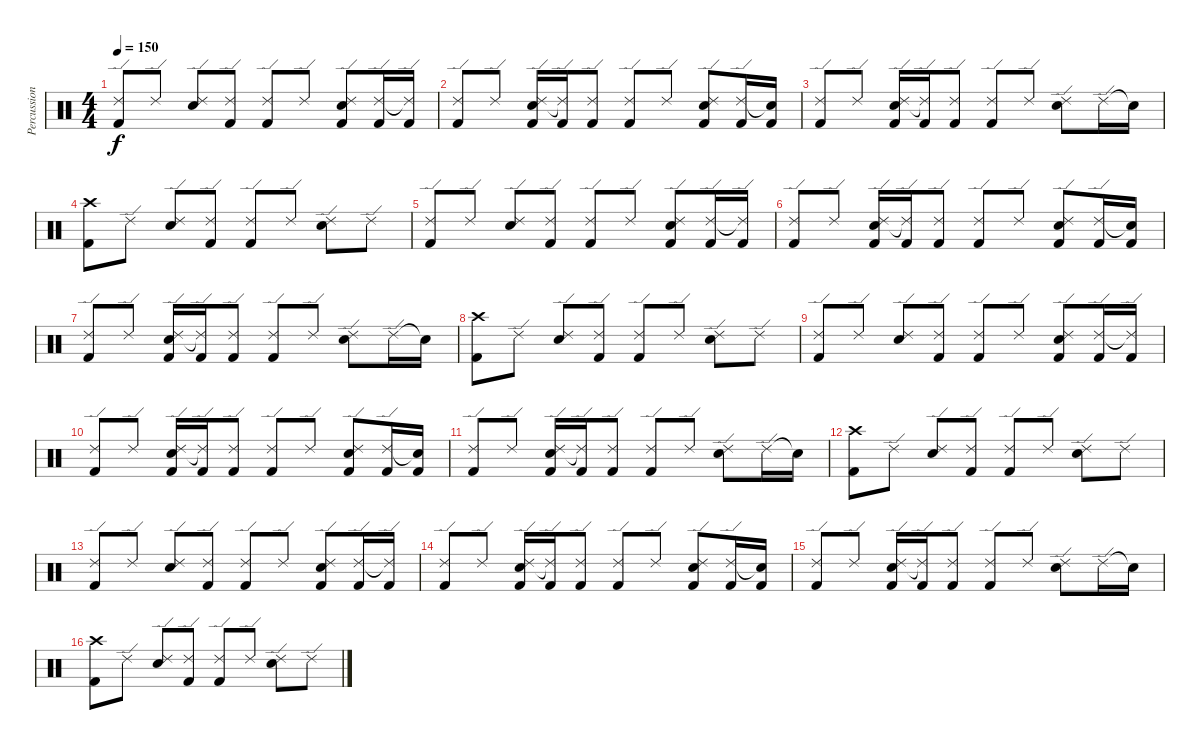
\track ("Percussion" "Percussion") {instrument percussion}
\staff {score}
\articulation defaults
\ts (4 4)
\tempo 150
\clef neutral
\ks c
("Ride (edge) 2" "Kick (hit) 2").8{dy f} "Ride (edge) 2".8 ("Ride (edge) 2" "Electric Snare (hit)").8 ("Ride (edge) 2" "Kick (hit) 2").8 ("Ride (edge) 2" "Kick (hit) 2").8 "Ride (edge) 2".8 ("Electric Snare (hit)" "Ride (edge) 2" "Kick (hit) 2").8 ("Ride (edge) 2" "Kick (hit) 2").16 ("Ride (edge) 2"{t} "Kick (hit) 2").16 |
("Ride (edge) 2" "Kick (hit) 2").8 "Ride (edge) 2".8 ("Electric Snare (hit)" "Ride (edge) 2" "Kick (hit) 2").16 ("Ride (edge) 2"{t} "Kick (hit) 2").16 ("Ride (edge) 2" "Kick (hit) 2").8 ("Ride (edge) 2" "Kick (hit) 2").8 "Ride (edge) 2".8 ("Electric Snare (hit)" "Ride (edge) 2" "Kick (hit) 2").8 ("Ride (edge) 2" "Kick (hit) 2").16 ("Snare (hit)"{t} "Kick (hit) 2").16 |
("Ride (edge) 2" "Kick (hit) 2").8 "Ride (edge) 2".8 ("Electric Snare (hit)" "Ride (edge) 2" "Kick (hit) 2").16 ("Ride (edge) 2"{t} "Kick (hit) 2").16 ("Ride (edge) 2" "Kick (hit) 2").8 ("Ride (edge) 2" "Kick (hit) 2").8 "Ride (edge) 2".8 ("Electric Snare (hit)" "Ride (edge) 2").8 "Ride (edge) 2".16 "Snare (hit)"{t}.16 |
("Crash high (hit)" "Kick (hit) 2").8 "Ride (edge) 2".8 ("Ride (edge) 2" "Electric Snare (hit)").8 ("Ride (edge) 2" "Kick (hit) 2").8 ("Ride (edge) 2" "Kick (hit) 2").8 "Ride (edge) 2".8 ("Ride (edge) 2" "Electric Snare (hit)").8 "Ride (edge) 2".8 |
("Ride (edge) 2" "Kick (hit) 2").8 "Ride (edge) 2".8 ("Ride (edge) 2" "Electric Snare (hit)").8 ("Ride (edge) 2" "Kick (hit) 2").8 ("Ride (edge) 2" "Kick (hit) 2").8 "Ride (edge) 2".8 ("Electric Snare (hit)" "Ride (edge) 2" "Kick (hit) 2").8 ("Ride (edge) 2" "Kick (hit) 2").16 ("Ride (edge) 2"{t} "Kick (hit) 2").16 |
("Ride (edge) 2" "Kick (hit) 2").8 "Ride (edge) 2".8 ("Electric Snare (hit)" "Ride (edge) 2" "Kick (hit) 2").16 ("Ride (edge) 2"{t} "Kick (hit) 2").16 ("Ride (edge) 2" "Kick (hit) 2").8 ("Ride (edge) 2" "Kick (hit) 2").8 "Ride (edge) 2".8 ("Electric Snare (hit)" "Ride (edge) 2" "Kick (hit) 2").8 ("Ride (edge) 2" "Kick (hit) 2").16 ("Snare (hit)"{t} "Kick (hit) 2").16 |
("Ride (edge) 2" "Kick (hit) 2").8 "Ride (edge) 2".8 ("Electric Snare (hit)" "Ride (edge) 2" "Kick (hit) 2").16 ("Ride (edge) 2"{t} "Kick (hit) 2").16 ("Ride (edge) 2" "Kick (hit) 2").8 ("Ride (edge) 2" "Kick (hit) 2").8 "Ride (edge) 2".8 ("Electric Snare (hit)" "Ride (edge) 2").8 "Ride (edge) 2".16 "Snare (hit)"{t}.16 |
("Crash high (hit)" "Kick (hit) 2").8 "Ride (edge) 2".8 ("Ride (edge) 2" "Electric Snare (hit)").8 ("Ride (edge) 2" "Kick (hit) 2").8 ("Ride (edge) 2" "Kick (hit) 2").8 "Ride (edge) 2".8 ("Ride (edge) 2" "Electric Snare (hit)").8 "Ride (edge) 2".8 |
("Ride (edge) 2" "Kick (hit) 2").8 "Ride (edge) 2".8 ("Ride (edge) 2" "Electric Snare (hit)").8 ("Ride (edge) 2" "Kick (hit) 2").8 ("Ride (edge) 2" "Kick (hit) 2").8 "Ride (edge) 2".8 ("Electric Snare (hit)" "Ride (edge) 2" "Kick (hit) 2").8 ("Ride (edge) 2" "Kick (hit) 2").16 ("Ride (edge) 2"{t} "Kick (hit) 2").16 |
("Ride (edge) 2" "Kick (hit) 2").8 "Ride (edge) 2".8 ("Electric Snare (hit)" "Ride (edge) 2" "Kick (hit) 2").16 ("Ride (edge) 2"{t} "Kick (hit) 2").16 ("Ride (edge) 2" "Kick (hit) 2").8 ("Ride (edge) 2" "Kick (hit) 2").8 "Ride (edge) 2".8 ("Electric Snare (hit)" "Ride (edge) 2" "Kick (hit) 2").8 ("Ride (edge) 2" "Kick (hit) 2").16 ("Snare (hit)"{t} "Kick (hit) 2").16 |
("Ride (edge) 2" "Kick (hit) 2").8 "Ride (edge) 2".8 ("Electric Snare (hit)" "Ride (edge) 2" "Kick (hit) 2").16 ("Ride (edge) 2"{t} "Kick (hit) 2").16 ("Ride (edge) 2" "Kick (hit) 2").8 ("Ride (edge) 2" "Kick (hit) 2").8 "Ride (edge) 2".8 ("Electric Snare (hit)" "Ride (edge) 2").8 "Ride (edge) 2".16 "Snare (hit)"{t}.16 |
("Crash high (hit)" "Kick (hit) 2").8 "Ride (edge) 2".8 ("Ride (edge) 2" "Electric Snare (hit)").8 ("Ride (edge) 2" "Kick (hit) 2").8 ("Ride (edge) 2" "Kick (hit) 2").8 "Ride (edge) 2".8 ("Ride (edge) 2" "Electric Snare (hit)").8 "Ride (edge) 2".8 |
("Ride (edge) 2" "Kick (hit) 2").8 "Ride (edge) 2".8 ("Ride (edge) 2" "Electric Snare (hit)").8 ("Ride (edge) 2" "Kick (hit) 2").8 ("Ride (edge) 2" "Kick (hit) 2").8 "Ride (edge) 2".8 ("Electric Snare (hit)" "Ride (edge) 2" "Kick (hit) 2").8 ("Ride (edge) 2" "Kick (hit) 2").16 ("Ride (edge) 2"{t} "Kick (hit) 2").16 |
("Ride (edge) 2" "Kick (hit) 2").8 "Ride (edge) 2".8 ("Electric Snare (hit)" "Ride (edge) 2" "Kick (hit) 2").16 ("Ride (edge) 2"{t} "Kick (hit) 2").16 ("Ride (edge) 2" "Kick (hit) 2").8 ("Ride (edge) 2" "Kick (hit) 2").8 "Ride (edge) 2".8 ("Electric Snare (hit)" "Ride (edge) 2" "Kick (hit) 2").8 ("Ride (edge) 2" "Kick (hit) 2").16 ("Snare (hit)"{t} "Kick (hit) 2").16 |
("Ride (edge) 2" "Kick (hit) 2").8 "Ride (edge) 2".8 ("Electric Snare (hit)" "Ride (edge) 2" "Kick (hit) 2").16 ("Ride (edge) 2"{t} "Kick (hit) 2").16 ("Ride (edge) 2" "Kick (hit) 2").8 ("Ride (edge) 2" "Kick (hit) 2").8 "Ride (edge) 2".8 ("Electric Snare (hit)" "Ride (edge) 2").8 "Ride (edge) 2".16 "Snare (hit)"{t}.16 |
("Crash high (hit)" "Kick (hit) 2").8 "Ride (edge) 2".8 ("Ride (edge) 2" "Electric Snare (hit)").8 ("Ride (edge) 2" "Kick (hit) 2").8 ("Ride (edge) 2" "Kick (hit) 2").8 "Ride (edge) 2".8 ("Ride (edge) 2" "Electric Snare (hit)").8 "Ride (edge) 2".8
